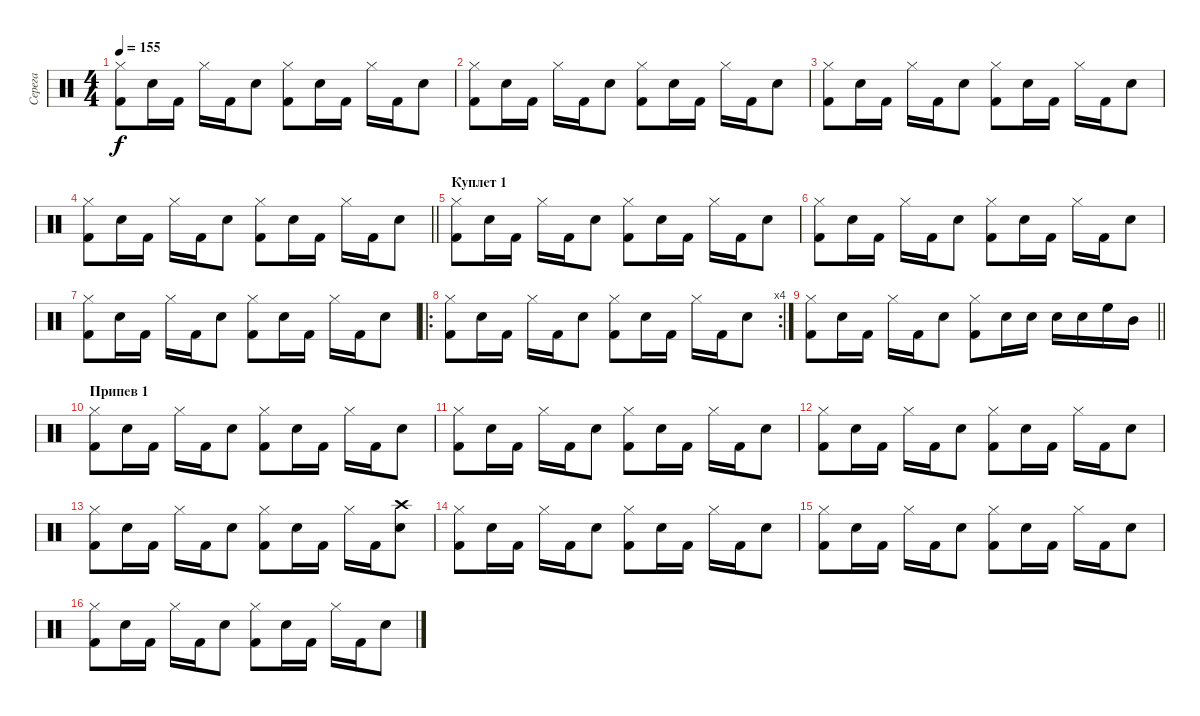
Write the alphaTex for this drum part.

\track ("Серега" "Серега") {instrument percussion}
\staff {score}
\articulation defaults
\ts (4 4)
\tempo 155
\clef neutral
\ks c
("Hi-Hat (closed)" "Kick (hit) 2").8{dy f} "Snare (hit) 2".16 "Kick (hit) 2".16 "Hi-Hat (closed)".16 "Kick (hit) 2".16 "Snare (hit) 2".8 ("Hi-Hat (closed)" "Kick (hit) 2").8 "Snare (hit) 2".16 "Kick (hit) 2".16 "Hi-Hat (closed)".16 "Kick (hit) 2".16 "Snare (hit) 2".8 |
("Hi-Hat (closed)" "Kick (hit) 2").8 "Snare (hit) 2".16 "Kick (hit) 2".16 "Hi-Hat (closed)".16 "Kick (hit) 2".16 "Snare (hit) 2".8 ("Hi-Hat (closed)" "Kick (hit) 2").8 "Snare (hit) 2".16 "Kick (hit) 2".16 "Hi-Hat (closed)".16 "Kick (hit) 2".16 "Snare (hit) 2".8 |
("Hi-Hat (closed)" "Kick (hit) 2").8 "Snare (hit) 2".16 "Kick (hit) 2".16 "Hi-Hat (closed)".16 "Kick (hit) 2".16 "Snare (hit) 2".8 ("Hi-Hat (closed)" "Kick (hit) 2").8 "Snare (hit) 2".16 "Kick (hit) 2".16 "Hi-Hat (closed)".16 "Kick (hit) 2".16 "Snare (hit) 2".8 |
\barLineRight lightlight
("Hi-Hat (closed)" "Kick (hit) 2").8 "Snare (hit) 2".16 "Kick (hit) 2".16 "Hi-Hat (closed)".16 "Kick (hit) 2".16 "Snare (hit) 2".8 ("Hi-Hat (closed)" "Kick (hit) 2").8 "Snare (hit) 2".16 "Kick (hit) 2".16 "Hi-Hat (closed)".16 "Kick (hit) 2".16 "Snare (hit) 2".8 |
\section ("" "Куплет 1")
("Hi-Hat (closed)" "Kick (hit) 2").8 "Snare (hit) 2".16 "Kick (hit) 2".16 "Hi-Hat (closed)".16 "Kick (hit) 2".16 "Snare (hit) 2".8 ("Hi-Hat (closed)" "Kick (hit) 2").8 "Snare (hit) 2".16 "Kick (hit) 2".16 "Hi-Hat (closed)".16 "Kick (hit) 2".16 "Snare (hit) 2".8 |
("Hi-Hat (closed)" "Kick (hit) 2").8 "Snare (hit) 2".16 "Kick (hit) 2".16 "Hi-Hat (closed)".16 "Kick (hit) 2".16 "Snare (hit) 2".8 ("Hi-Hat (closed)" "Kick (hit) 2").8 "Snare (hit) 2".16 "Kick (hit) 2".16 "Hi-Hat (closed)".16 "Kick (hit) 2".16 "Snare (hit) 2".8 |
("Hi-Hat (closed)" "Kick (hit) 2").8 "Snare (hit) 2".16 "Kick (hit) 2".16 "Hi-Hat (closed)".16 "Kick (hit) 2".16 "Snare (hit) 2".8 ("Hi-Hat (closed)" "Kick (hit) 2").8 "Snare (hit) 2".16 "Kick (hit) 2".16 "Hi-Hat (closed)".16 "Kick (hit) 2".16 "Snare (hit) 2".8 |
\ro
\rc 4
("Hi-Hat (closed)" "Kick (hit) 2").8 "Snare (hit) 2".16 "Kick (hit) 2".16 "Hi-Hat (closed)".16 "Kick (hit) 2".16 "Snare (hit) 2".8 ("Hi-Hat (closed)" "Kick (hit) 2").8 "Snare (hit) 2".16 "Kick (hit) 2".16 "Hi-Hat (closed)".16 "Kick (hit) 2".16 "Snare (hit) 2".8 |
\barLineRight lightlight
("Hi-Hat (closed)" "Kick (hit) 2").8 "Snare (hit) 2".16 "Kick (hit) 2".16 "Hi-Hat (closed)".16 "Kick (hit) 2".16 "Snare (hit) 2".8 ("Hi-Hat (closed)" "Kick (hit) 2").8 "Snare (hit) 2".16 "Snare (hit) 2".16 "Snare (hit) 2".16 "Snare (hit) 2".16 "High Floor Tom (hit)".16 "Mid Tom (hit)".16 |
\section ("" "Припев 1")
("Hi-Hat (closed)" "Kick (hit) 2").8 "Snare (hit) 2".16 "Kick (hit) 2".16 "Hi-Hat (closed)".16 "Kick (hit) 2".16 "Snare (hit) 2".8 ("Hi-Hat (closed)" "Kick (hit) 2").8 "Snare (hit) 2".16 "Kick (hit) 2".16 "Hi-Hat (closed)".16 "Kick (hit) 2".16 "Snare (hit) 2".8 |
("Hi-Hat (closed)" "Kick (hit) 2").8 "Snare (hit) 2".16 "Kick (hit) 2".16 "Hi-Hat (closed)".16 "Kick (hit) 2".16 "Snare (hit) 2".8 ("Hi-Hat (closed)" "Kick (hit) 2").8 "Snare (hit) 2".16 "Kick (hit) 2".16 "Hi-Hat (closed)".16 "Kick (hit) 2".16 "Snare (hit) 2".8 |
("Hi-Hat (closed)" "Kick (hit) 2").8 "Snare (hit) 2".16 "Kick (hit) 2".16 "Hi-Hat (closed)".16 "Kick (hit) 2".16 "Snare (hit) 2".8 ("Hi-Hat (closed)" "Kick (hit) 2").8 "Snare (hit) 2".16 "Kick (hit) 2".16 "Hi-Hat (closed)".16 "Kick (hit) 2".16 "Snare (hit) 2".8 |
("Hi-Hat (closed)" "Kick (hit) 2").8 "Snare (hit) 2".16 "Kick (hit) 2".16 "Hi-Hat (closed)".16 "Kick (hit) 2".16 "Snare (hit) 2".8 ("Hi-Hat (closed)" "Kick (hit) 2").8 "Snare (hit) 2".16 "Kick (hit) 2".16 "Hi-Hat (closed)".16 "Kick (hit) 2".16 ("Crash high (hit)" "Snare (hit) 2").8 |
("Hi-Hat (closed)" "Kick (hit) 2").8 "Snare (hit) 2".16 "Kick (hit) 2".16 "Hi-Hat (closed)".16 "Kick (hit) 2".16 "Snare (hit) 2".8 ("Hi-Hat (closed)" "Kick (hit) 2").8 "Snare (hit) 2".16 "Kick (hit) 2".16 "Hi-Hat (closed)".16 "Kick (hit) 2".16 "Snare (hit) 2".8 |
("Hi-Hat (closed)" "Kick (hit) 2").8 "Snare (hit) 2".16 "Kick (hit) 2".16 "Hi-Hat (closed)".16 "Kick (hit) 2".16 "Snare (hit) 2".8 ("Hi-Hat (closed)" "Kick (hit) 2").8 "Snare (hit) 2".16 "Kick (hit) 2".16 "Hi-Hat (closed)".16 "Kick (hit) 2".16 "Snare (hit) 2".8 |
("Hi-Hat (closed)" "Kick (hit) 2").8 "Snare (hit) 2".16 "Kick (hit) 2".16 "Hi-Hat (closed)".16 "Kick (hit) 2".16 "Snare (hit) 2".8 ("Hi-Hat (closed)" "Kick (hit) 2").8 "Snare (hit) 2".16 "Kick (hit) 2".16 "Hi-Hat (closed)".16 "Kick (hit) 2".16 "Snare (hit) 2".8
